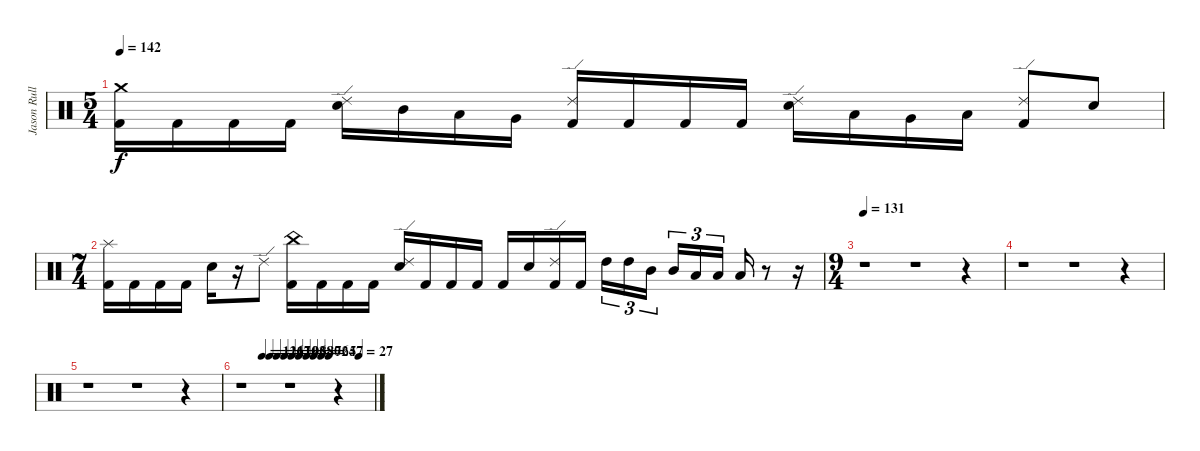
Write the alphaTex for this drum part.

\track ("Jason Rullo (drums)" "Jason Rull") {solo instrument percussion}
\staff {score}
\articulation defaults
\ts (5 4)
\tempo 142
\clef neutral
\ks c
("Crash medium (hit)" "Kick (hit) 2").16{dy f} "Kick (hit) 2".16 "Kick (hit) 2".16 "Kick (hit) 2".16 ("Ride (edge) 2" "Electric Snare (hit)").16 "Mid Tom (hit)".16 "Low Tom (hit)".16 "Very Low Tom (hit)".16 ("Ride (edge) 2" "Kick (hit) 2").16 "Kick (hit) 2".16 "Kick (hit) 2".16 "Kick (hit) 2".16 ("Ride (edge) 2" "Electric Snare (hit)").16 "Low Tom (hit)".16 "Very Low Tom (hit)".16 "Low Floor Tom (hit)".16 ("Ride (edge) 2" "Kick (hit) 2").8 "Electric Snare (hit)".8 |
\ts (7 4)
("Splash (hit)" "Kick (hit) 2").16 "Kick (hit) 2".16 "Kick (hit) 2".16 "Kick (hit) 2".16 "Electric Snare (hit)".16 r.16 "Ride (edge) 2".8 ("China (hit)" "Kick (hit) 2").16 "Kick (hit) 2".16 "Kick (hit) 2".16 "Kick (hit) 2".16 ("Ride (edge) 2" "Electric Snare (hit)").16 "Kick (hit) 2".16 "Kick (hit) 2".16 "Kick (hit) 2".16 "Kick (hit) 2".16 "Electric Snare (hit)".16 ("Ride (edge) 2" "Kick (hit) 2").16 "Kick (hit) 2".16 "High Tom (hit)".16{tu (3 2)} "High Tom (hit)".16{tu (3 2)} "Mid Tom (hit)".16{tu (3 2) beam splitsecondary} "Mid Tom (hit)".16{tu (3 2)} "Low Tom (hit)".16{tu (3 2)} "Low Tom (hit)".16{tu (3 2)} "Low Floor Tom (hit)".16 r.8 r.16 |
\ts (9 4)
\tempo 131
r.1 r.1 r.4 |
r.1 r.1 r.4 |
r.1 r.1 r.4 |
\tempo (126 0.16666666666666666)
\tempo (117 0.2222222222222222)
\tempo (110 0.2777777777777778)
\tempo (103 0.3333333333333333)
\tempo (96 0.3888888888888889)
\tempo (88 0.4444444444444444)
\tempo (80 0.5)
\tempo (72 0.5555555555555556)
\tempo (64 0.6111111111111112)
\tempo (57 0.6666666666666666)
\tempo (27 0.8888888888888888)
r.1 r.1 r.4
